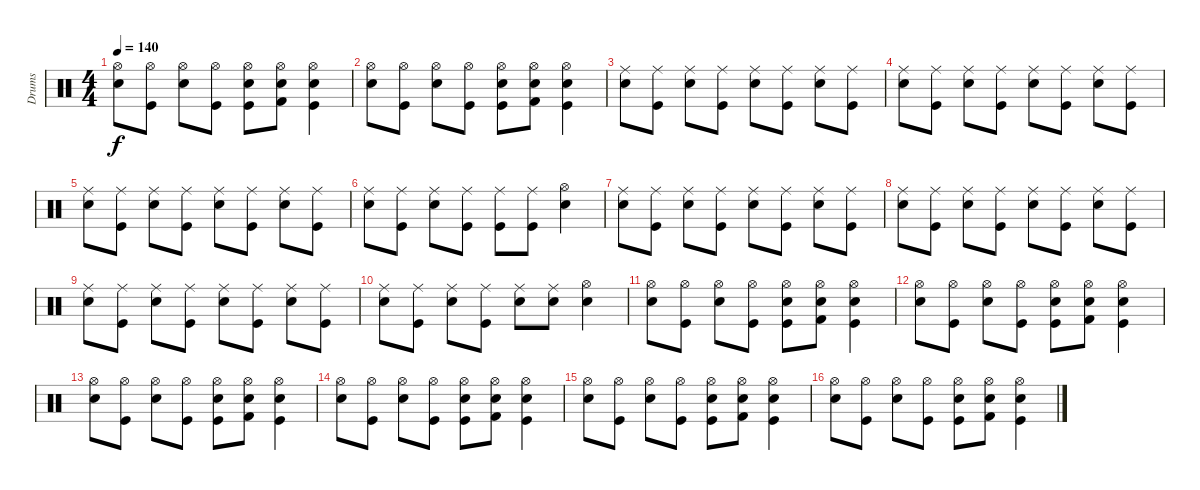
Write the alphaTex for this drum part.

\track ("Drums" "Drums") {instrument percussion}
\staff {score}
\articulation defaults
\ts (4 4)
\tempo 140
\clef neutral
\ks c
("Hi-Hat (open)" "Snare (hit) 2").8{dy f} ("Hi-Hat (open)" "Kick (hit)").8 ("Hi-Hat (open)" "Snare (hit) 2").8 ("Hi-Hat (open)" "Kick (hit)").8 ("Hi-Hat (open)" "Snare (hit) 2" "Kick (hit)").8 ("Hi-Hat (open)" "Snare (hit) 2" "Kick (hit) 2").8 ("Hi-Hat (open)" "Kick (hit)" "Snare (hit) 2").4 |
("Hi-Hat (open)" "Snare (hit) 2").8 ("Hi-Hat (open)" "Kick (hit)").8 ("Hi-Hat (open)" "Snare (hit) 2").8 ("Hi-Hat (open)" "Kick (hit)").8 ("Hi-Hat (open)" "Snare (hit) 2" "Kick (hit)").8 ("Hi-Hat (open)" "Snare (hit) 2" "Kick (hit) 2").8 ("Hi-Hat (open)" "Kick (hit)" "Snare (hit) 2").4 |
("Ride (middle)" "Snare (hit) 2").8 ("Ride (middle)" "Kick (hit)").8 ("Ride (middle)" "Snare (hit) 2").8 ("Ride (middle)" "Kick (hit)").8 ("Ride (middle)" "Snare (hit) 2").8 ("Ride (middle)" "Kick (hit)").8 ("Ride (middle)" "Snare (hit) 2").8 ("Ride (middle)" "Kick (hit)").8 |
("Ride (middle)" "Snare (hit) 2").8 ("Ride (middle)" "Kick (hit)").8 ("Ride (middle)" "Snare (hit) 2").8 ("Ride (middle)" "Kick (hit)").8 ("Ride (middle)" "Snare (hit) 2").8 ("Ride (middle)" "Kick (hit)").8 ("Ride (middle)" "Snare (hit) 2").8 ("Ride (middle)" "Kick (hit)").8 |
("Ride (middle)" "Snare (hit) 2").8 ("Ride (middle)" "Kick (hit)").8 ("Ride (middle)" "Snare (hit) 2").8 ("Ride (middle)" "Kick (hit)").8 ("Ride (middle)" "Snare (hit) 2").8 ("Ride (middle)" "Kick (hit)").8 ("Ride (middle)" "Snare (hit) 2").8 ("Ride (middle)" "Kick (hit)").8 |
("Ride (middle)" "Snare (hit) 2").8 ("Ride (middle)" "Kick (hit)").8 ("Ride (middle)" "Snare (hit) 2").8 ("Ride (middle)" "Kick (hit)").8 ("Ride (middle)" "Kick (hit)").8 ("Ride (middle)" "Kick (hit)").8 ("Hi-Hat (open)" "Snare (hit) 2").4 |
("Ride (middle)" "Snare (hit) 2").8 ("Ride (middle)" "Kick (hit)").8 ("Ride (middle)" "Snare (hit) 2").8 ("Ride (middle)" "Kick (hit)").8 ("Ride (middle)" "Snare (hit) 2").8 ("Ride (middle)" "Kick (hit)").8 ("Ride (middle)" "Snare (hit) 2").8 ("Ride (middle)" "Kick (hit)").8 |
("Ride (middle)" "Snare (hit) 2").8 ("Ride (middle)" "Kick (hit)").8 ("Ride (middle)" "Snare (hit) 2").8 ("Ride (middle)" "Kick (hit)").8 ("Ride (middle)" "Snare (hit) 2").8 ("Ride (middle)" "Kick (hit)").8 ("Ride (middle)" "Snare (hit) 2").8 ("Ride (middle)" "Kick (hit)").8 |
("Ride (middle)" "Snare (hit) 2").8 ("Ride (middle)" "Kick (hit)").8 ("Ride (middle)" "Snare (hit) 2").8 ("Ride (middle)" "Kick (hit)").8 ("Ride (middle)" "Snare (hit) 2").8 ("Ride (middle)" "Kick (hit)").8 ("Ride (middle)" "Snare (hit) 2").8 ("Ride (middle)" "Kick (hit)").8 |
("Ride (middle)" "Snare (hit) 2").8 ("Ride (middle)" "Kick (hit)").8 ("Ride (middle)" "Snare (hit) 2").8 ("Ride (middle)" "Kick (hit)").8 ("Ride (middle)" "Snare (hit) 2").8 ("Ride (middle)" "Snare (hit) 2").8 ("Hi-Hat (open)" "Snare (hit) 2").4 |
("Hi-Hat (open)" "Snare (hit) 2").8 ("Hi-Hat (open)" "Kick (hit)").8 ("Hi-Hat (open)" "Snare (hit) 2").8 ("Hi-Hat (open)" "Kick (hit)").8 ("Hi-Hat (open)" "Snare (hit) 2" "Kick (hit)").8 ("Hi-Hat (open)" "Snare (hit) 2" "Kick (hit) 2").8 ("Hi-Hat (open)" "Kick (hit)" "Snare (hit) 2").4 |
("Hi-Hat (open)" "Snare (hit) 2").8 ("Hi-Hat (open)" "Kick (hit)").8 ("Hi-Hat (open)" "Snare (hit) 2").8 ("Hi-Hat (open)" "Kick (hit)").8 ("Hi-Hat (open)" "Snare (hit) 2" "Kick (hit)").8 ("Hi-Hat (open)" "Snare (hit) 2" "Kick (hit) 2").8 ("Hi-Hat (open)" "Kick (hit)" "Snare (hit) 2").4 |
("Hi-Hat (open)" "Snare (hit) 2").8 ("Hi-Hat (open)" "Kick (hit)").8 ("Hi-Hat (open)" "Snare (hit) 2").8 ("Hi-Hat (open)" "Kick (hit)").8 ("Hi-Hat (open)" "Snare (hit) 2" "Kick (hit)").8 ("Hi-Hat (open)" "Snare (hit) 2" "Kick (hit) 2").8 ("Hi-Hat (open)" "Kick (hit)" "Snare (hit) 2").4 |
("Hi-Hat (open)" "Snare (hit) 2").8 ("Hi-Hat (open)" "Kick (hit)").8 ("Hi-Hat (open)" "Snare (hit) 2").8 ("Hi-Hat (open)" "Kick (hit)").8 ("Hi-Hat (open)" "Snare (hit) 2" "Kick (hit)").8 ("Hi-Hat (open)" "Snare (hit) 2" "Kick (hit) 2").8 ("Hi-Hat (open)" "Kick (hit)" "Snare (hit) 2").4 |
("Hi-Hat (open)" "Snare (hit) 2").8 ("Hi-Hat (open)" "Kick (hit)").8 ("Hi-Hat (open)" "Snare (hit) 2").8 ("Hi-Hat (open)" "Kick (hit)").8 ("Hi-Hat (open)" "Snare (hit) 2" "Kick (hit)").8 ("Hi-Hat (open)" "Snare (hit) 2" "Kick (hit) 2").8 ("Hi-Hat (open)" "Kick (hit)" "Snare (hit) 2").4 |
("Hi-Hat (open)" "Snare (hit) 2").8 ("Hi-Hat (open)" "Kick (hit)").8 ("Hi-Hat (open)" "Snare (hit) 2").8 ("Hi-Hat (open)" "Kick (hit)").8 ("Hi-Hat (open)" "Snare (hit) 2" "Kick (hit)").8 ("Hi-Hat (open)" "Snare (hit) 2" "Kick (hit) 2").8 ("Hi-Hat (open)" "Kick (hit)" "Snare (hit) 2").4
